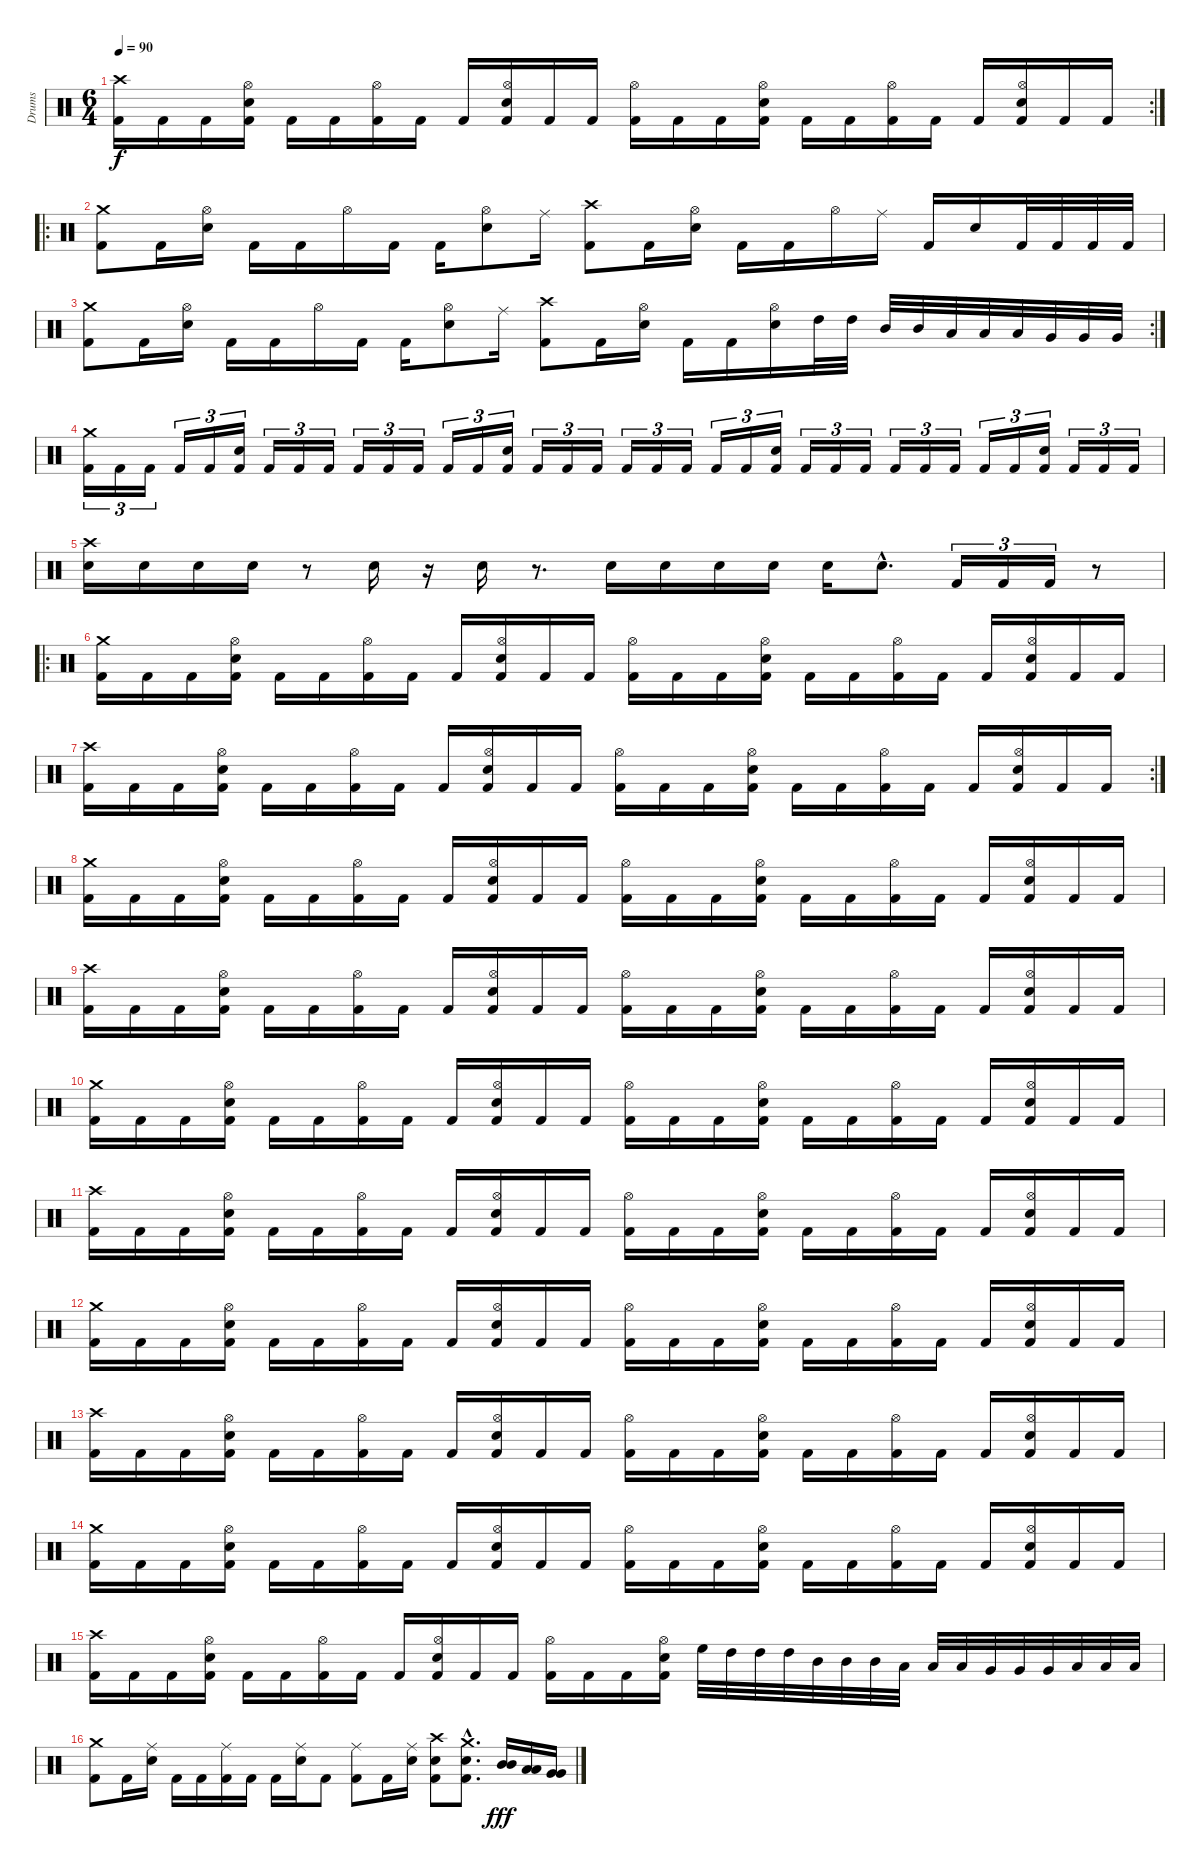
\track ("Drums" "Drums") {instrument percussion}
\staff {score}
\articulation defaults
\rc 2
\ts (6 4)
\tempo 90
\clef neutral
\ks c
("Crash high (hit)" "Kick (hit) 2").16{dy f} "Kick (hit) 2".16 "Kick (hit) 2".16 ("Hi-Hat (open)" "Electric Snare (hit)" "Kick (hit) 2").16 "Kick (hit) 2".16 "Kick (hit) 2".16 ("Hi-Hat (open)" "Kick (hit) 2").16 "Kick (hit) 2".16 "Kick (hit) 2".16 ("Hi-Hat (open)" "Electric Snare (hit)" "Kick (hit) 2").16 "Kick (hit) 2".16 "Kick (hit) 2".16 ("Hi-Hat (open)" "Kick (hit) 2").16 "Kick (hit) 2".16 "Kick (hit) 2".16 ("Hi-Hat (open)" "Electric Snare (hit)" "Kick (hit) 2").16 "Kick (hit) 2".16 "Kick (hit) 2".16 ("Hi-Hat (open)" "Kick (hit) 2").16 "Kick (hit) 2".16 "Kick (hit) 2".16 ("Hi-Hat (open)" "Electric Snare (hit)" "Kick (hit) 2").16 "Kick (hit) 2".16 "Kick (hit) 2".16 |
\ro
("Crash medium (hit)" "Kick (hit) 2").8 "Kick (hit) 2".16 ("Hi-Hat (open)" "Electric Snare (hit)").16 "Kick (hit) 2".16 "Kick (hit) 2".16 "Hi-Hat (open)".16 "Kick (hit) 2".16 "Kick (hit) 2".16 ("Hi-Hat (open)" "Electric Snare (hit)").8 "Ride (middle)".16 ("Crash high (hit)" "Kick (hit) 2").8 "Kick (hit) 2".16 ("Hi-Hat (open)" "Electric Snare (hit)").16 "Kick (hit) 2".16 "Kick (hit) 2".16 "Hi-Hat (open)".16 "Ride (middle)".16 "Kick (hit) 2".16 "Electric Snare (hit)".16 "Kick (hit) 2".32 "Kick (hit) 2".32 "Kick (hit) 2".32 "Kick (hit) 2".32 |
\rc 2
("Crash medium (hit)" "Kick (hit) 2").8 "Kick (hit) 2".16 ("Hi-Hat (open)" "Electric Snare (hit)").16 "Kick (hit) 2".16 "Kick (hit) 2".16 "Hi-Hat (open)".16 "Kick (hit) 2".16 "Kick (hit) 2".16 ("Hi-Hat (open)" "Electric Snare (hit)").8 "Ride (middle)".16 ("Crash high (hit)" "Kick (hit) 2").8 "Kick (hit) 2".16 ("Hi-Hat (open)" "Electric Snare (hit)").16 "Kick (hit) 2".16 "Kick (hit) 2".16 ("Hi-Hat (open)" "Electric Snare (hit)").16 "High Tom (hit)".32 "High Tom (hit)".32 "Mid Tom (hit)".32 "Mid Tom (hit)".32 "Low Tom (hit)".32 "Low Tom (hit)".32 "Low Tom (hit)".32 "Very Low Tom (hit)".32 "Very Low Tom (hit)".32 "Very Low Tom (hit)".32 |
("Crash medium (hit)" "Kick (hit) 2").16{tu (3 2)} "Kick (hit) 2".16{tu (3 2)} "Kick (hit) 2".16{tu (3 2)} "Kick (hit) 2".16{tu (3 2)} "Kick (hit) 2".16{tu (3 2)} ("Electric Snare (hit)" "Kick (hit) 2").16{tu (3 2)} "Kick (hit) 2".16{tu (3 2)} "Kick (hit) 2".16{tu (3 2)} "Kick (hit) 2".16{tu (3 2)} "Kick (hit) 2".16{tu (3 2)} "Kick (hit) 2".16{tu (3 2)} "Kick (hit) 2".16{tu (3 2)} "Kick (hit) 2".16{tu (3 2)} "Kick (hit) 2".16{tu (3 2)} ("Electric Snare (hit)" "Kick (hit) 2").16{tu (3 2)} "Kick (hit) 2".16{tu (3 2)} "Kick (hit) 2".16{tu (3 2)} "Kick (hit) 2".16{tu (3 2)} "Kick (hit) 2".16{tu (3 2)} "Kick (hit) 2".16{tu (3 2)} "Kick (hit) 2".16{tu (3 2)} "Kick (hit) 2".16{tu (3 2)} "Kick (hit) 2".16{tu (3 2)} ("Electric Snare (hit)" "Kick (hit) 2").16{tu (3 2)} "Kick (hit) 2".16{tu (3 2)} "Kick (hit) 2".16{tu (3 2)} "Kick (hit) 2".16{tu (3 2)} "Kick (hit) 2".16{tu (3 2)} "Kick (hit) 2".16{tu (3 2)} "Kick (hit) 2".16{tu (3 2)} "Kick (hit) 2".16{tu (3 2)} "Kick (hit) 2".16{tu (3 2)} ("Electric Snare (hit)" "Kick (hit) 2").16{tu (3 2)} "Kick (hit) 2".16{tu (3 2)} "Kick (hit) 2".16{tu (3 2)} "Kick (hit) 2".16{tu (3 2)} |
("Crash high (hit)" "Electric Snare (hit)").16 "Electric Snare (hit)".16 "Electric Snare (hit)".16 "Electric Snare (hit)".16 r.8 "Electric Snare (hit)".16 r.16 "Electric Snare (hit)".16 r.8{d} "Electric Snare (hit)".16 "Electric Snare (hit)".16 "Electric Snare (hit)".16 "Electric Snare (hit)".16 "Electric Snare (hit)".16 "Electric Snare (hit)"{hac}.8{d} "Kick (hit) 2".16{tu (3 2)} "Kick (hit) 2".16{tu (3 2)} "Kick (hit) 2".16{tu (3 2)} r.8 |
\ro
("Crash medium (hit)" "Kick (hit) 2").16 "Kick (hit) 2".16 "Kick (hit) 2".16 ("Hi-Hat (open)" "Electric Snare (hit)" "Kick (hit) 2").16 "Kick (hit) 2".16 "Kick (hit) 2".16 ("Hi-Hat (open)" "Kick (hit) 2").16 "Kick (hit) 2".16 "Kick (hit) 2".16 ("Hi-Hat (open)" "Electric Snare (hit)" "Kick (hit) 2").16 "Kick (hit) 2".16 "Kick (hit) 2".16 ("Hi-Hat (open)" "Kick (hit) 2").16 "Kick (hit) 2".16 "Kick (hit) 2".16 ("Hi-Hat (open)" "Electric Snare (hit)" "Kick (hit) 2").16 "Kick (hit) 2".16 "Kick (hit) 2".16 ("Hi-Hat (open)" "Kick (hit) 2").16 "Kick (hit) 2".16 "Kick (hit) 2".16 ("Hi-Hat (open)" "Electric Snare (hit)" "Kick (hit) 2").16 "Kick (hit) 2".16 "Kick (hit) 2".16 |
\rc 2
("Crash high (hit)" "Kick (hit) 2").16 "Kick (hit) 2".16 "Kick (hit) 2".16 ("Hi-Hat (open)" "Electric Snare (hit)" "Kick (hit) 2").16 "Kick (hit) 2".16 "Kick (hit) 2".16 ("Hi-Hat (open)" "Kick (hit) 2").16 "Kick (hit) 2".16 "Kick (hit) 2".16 ("Hi-Hat (open)" "Electric Snare (hit)" "Kick (hit) 2").16 "Kick (hit) 2".16 "Kick (hit) 2".16 ("Hi-Hat (open)" "Kick (hit) 2").16 "Kick (hit) 2".16 "Kick (hit) 2".16 ("Hi-Hat (open)" "Electric Snare (hit)" "Kick (hit) 2").16 "Kick (hit) 2".16 "Kick (hit) 2".16 ("Hi-Hat (open)" "Kick (hit) 2").16 "Kick (hit) 2".16 "Kick (hit) 2".16 ("Hi-Hat (open)" "Electric Snare (hit)" "Kick (hit) 2").16 "Kick (hit) 2".16 "Kick (hit) 2".16 |
("Crash medium (hit)" "Kick (hit) 2").16 "Kick (hit) 2".16 "Kick (hit) 2".16 ("Hi-Hat (open)" "Electric Snare (hit)" "Kick (hit) 2").16 "Kick (hit) 2".16 "Kick (hit) 2".16 ("Hi-Hat (open)" "Kick (hit) 2").16 "Kick (hit) 2".16 "Kick (hit) 2".16 ("Hi-Hat (open)" "Electric Snare (hit)" "Kick (hit) 2").16 "Kick (hit) 2".16 "Kick (hit) 2".16 ("Hi-Hat (open)" "Kick (hit) 2").16 "Kick (hit) 2".16 "Kick (hit) 2".16 ("Hi-Hat (open)" "Electric Snare (hit)" "Kick (hit) 2").16 "Kick (hit) 2".16 "Kick (hit) 2".16 ("Hi-Hat (open)" "Kick (hit) 2").16 "Kick (hit) 2".16 "Kick (hit) 2".16 ("Hi-Hat (open)" "Electric Snare (hit)" "Kick (hit) 2").16 "Kick (hit) 2".16 "Kick (hit) 2".16 |
("Crash high (hit)" "Kick (hit) 2").16 "Kick (hit) 2".16 "Kick (hit) 2".16 ("Hi-Hat (open)" "Electric Snare (hit)" "Kick (hit) 2").16 "Kick (hit) 2".16 "Kick (hit) 2".16 ("Hi-Hat (open)" "Kick (hit) 2").16 "Kick (hit) 2".16 "Kick (hit) 2".16 ("Hi-Hat (open)" "Electric Snare (hit)" "Kick (hit) 2").16 "Kick (hit) 2".16 "Kick (hit) 2".16 ("Hi-Hat (open)" "Kick (hit) 2").16 "Kick (hit) 2".16 "Kick (hit) 2".16 ("Hi-Hat (open)" "Electric Snare (hit)" "Kick (hit) 2").16 "Kick (hit) 2".16 "Kick (hit) 2".16 ("Hi-Hat (open)" "Kick (hit) 2").16 "Kick (hit) 2".16 "Kick (hit) 2".16 ("Hi-Hat (open)" "Electric Snare (hit)" "Kick (hit) 2").16 "Kick (hit) 2".16 "Kick (hit) 2".16 |
("Crash medium (hit)" "Kick (hit) 2").16 "Kick (hit) 2".16 "Kick (hit) 2".16 ("Hi-Hat (open)" "Electric Snare (hit)" "Kick (hit) 2").16 "Kick (hit) 2".16 "Kick (hit) 2".16 ("Hi-Hat (open)" "Kick (hit) 2").16 "Kick (hit) 2".16 "Kick (hit) 2".16 ("Hi-Hat (open)" "Electric Snare (hit)" "Kick (hit) 2").16 "Kick (hit) 2".16 "Kick (hit) 2".16 ("Hi-Hat (open)" "Kick (hit) 2").16 "Kick (hit) 2".16 "Kick (hit) 2".16 ("Hi-Hat (open)" "Electric Snare (hit)" "Kick (hit) 2").16 "Kick (hit) 2".16 "Kick (hit) 2".16 ("Hi-Hat (open)" "Kick (hit) 2").16 "Kick (hit) 2".16 "Kick (hit) 2".16 ("Hi-Hat (open)" "Electric Snare (hit)" "Kick (hit) 2").16 "Kick (hit) 2".16 "Kick (hit) 2".16 |
("Crash high (hit)" "Kick (hit) 2").16 "Kick (hit) 2".16 "Kick (hit) 2".16 ("Hi-Hat (open)" "Electric Snare (hit)" "Kick (hit) 2").16 "Kick (hit) 2".16 "Kick (hit) 2".16 ("Hi-Hat (open)" "Kick (hit) 2").16 "Kick (hit) 2".16 "Kick (hit) 2".16 ("Hi-Hat (open)" "Electric Snare (hit)" "Kick (hit) 2").16 "Kick (hit) 2".16 "Kick (hit) 2".16 ("Hi-Hat (open)" "Kick (hit) 2").16 "Kick (hit) 2".16 "Kick (hit) 2".16 ("Hi-Hat (open)" "Electric Snare (hit)" "Kick (hit) 2").16 "Kick (hit) 2".16 "Kick (hit) 2".16 ("Hi-Hat (open)" "Kick (hit) 2").16 "Kick (hit) 2".16 "Kick (hit) 2".16 ("Hi-Hat (open)" "Electric Snare (hit)" "Kick (hit) 2").16 "Kick (hit) 2".16 "Kick (hit) 2".16 |
("Crash medium (hit)" "Kick (hit) 2").16 "Kick (hit) 2".16 "Kick (hit) 2".16 ("Hi-Hat (open)" "Electric Snare (hit)" "Kick (hit) 2").16 "Kick (hit) 2".16 "Kick (hit) 2".16 ("Hi-Hat (open)" "Kick (hit) 2").16 "Kick (hit) 2".16 "Kick (hit) 2".16 ("Hi-Hat (open)" "Electric Snare (hit)" "Kick (hit) 2").16 "Kick (hit) 2".16 "Kick (hit) 2".16 ("Hi-Hat (open)" "Kick (hit) 2").16 "Kick (hit) 2".16 "Kick (hit) 2".16 ("Hi-Hat (open)" "Electric Snare (hit)" "Kick (hit) 2").16 "Kick (hit) 2".16 "Kick (hit) 2".16 ("Hi-Hat (open)" "Kick (hit) 2").16 "Kick (hit) 2".16 "Kick (hit) 2".16 ("Hi-Hat (open)" "Electric Snare (hit)" "Kick (hit) 2").16 "Kick (hit) 2".16 "Kick (hit) 2".16 |
("Crash high (hit)" "Kick (hit) 2").16 "Kick (hit) 2".16 "Kick (hit) 2".16 ("Hi-Hat (open)" "Electric Snare (hit)" "Kick (hit) 2").16 "Kick (hit) 2".16 "Kick (hit) 2".16 ("Hi-Hat (open)" "Kick (hit) 2").16 "Kick (hit) 2".16 "Kick (hit) 2".16 ("Hi-Hat (open)" "Electric Snare (hit)" "Kick (hit) 2").16 "Kick (hit) 2".16 "Kick (hit) 2".16 ("Hi-Hat (open)" "Kick (hit) 2").16 "Kick (hit) 2".16 "Kick (hit) 2".16 ("Hi-Hat (open)" "Electric Snare (hit)" "Kick (hit) 2").16 "Kick (hit) 2".16 "Kick (hit) 2".16 ("Hi-Hat (open)" "Kick (hit) 2").16 "Kick (hit) 2".16 "Kick (hit) 2".16 ("Hi-Hat (open)" "Electric Snare (hit)" "Kick (hit) 2").16 "Kick (hit) 2".16 "Kick (hit) 2".16 |
("Crash medium (hit)" "Kick (hit) 2").16 "Kick (hit) 2".16 "Kick (hit) 2".16 ("Hi-Hat (open)" "Electric Snare (hit)" "Kick (hit) 2").16 "Kick (hit) 2".16 "Kick (hit) 2".16 ("Hi-Hat (open)" "Kick (hit) 2").16 "Kick (hit) 2".16 "Kick (hit) 2".16 ("Hi-Hat (open)" "Electric Snare (hit)" "Kick (hit) 2").16 "Kick (hit) 2".16 "Kick (hit) 2".16 ("Hi-Hat (open)" "Kick (hit) 2").16 "Kick (hit) 2".16 "Kick (hit) 2".16 ("Hi-Hat (open)" "Electric Snare (hit)" "Kick (hit) 2").16 "Kick (hit) 2".16 "Kick (hit) 2".16 ("Hi-Hat (open)" "Kick (hit) 2").16 "Kick (hit) 2".16 "Kick (hit) 2".16 ("Hi-Hat (open)" "Electric Snare (hit)" "Kick (hit) 2").16 "Kick (hit) 2".16 "Kick (hit) 2".16 |
("Crash high (hit)" "Kick (hit) 2").16 "Kick (hit) 2".16 "Kick (hit) 2".16 ("Hi-Hat (open)" "Electric Snare (hit)" "Kick (hit) 2").16 "Kick (hit) 2".16 "Kick (hit) 2".16 ("Hi-Hat (open)" "Kick (hit) 2").16 "Kick (hit) 2".16 "Kick (hit) 2".16 ("Hi-Hat (open)" "Electric Snare (hit)" "Kick (hit) 2").16 "Kick (hit) 2".16 "Kick (hit) 2".16 ("Hi-Hat (open)" "Kick (hit) 2").16 "Kick (hit) 2".16 "Kick (hit) 2".16 ("Hi-Hat (open)" "Electric Snare (hit)" "Kick (hit) 2").16 "High Floor Tom (hit)".32 "High Tom (hit)".32 "High Tom (hit)".32 "High Tom (hit)".32 "Mid Tom (hit)".32 "Mid Tom (hit)".32 "Mid Tom (hit)".32 "Low Tom (hit)".32 "Low Tom (hit)".32 "Low Tom (hit)".32 "Very Low Tom (hit)".32 "Very Low Tom (hit)".32 "Very Low Tom (hit)".32 "Low Floor Tom (hit)".32 "Low Floor Tom (hit)".32 "Low Floor Tom (hit)".32 |
("Crash medium (hit)" "Kick (hit) 2").8 "Kick (hit) 2".16 ("Ride (middle)" "Electric Snare (hit)").16 "Kick (hit) 2".16 "Kick (hit) 2".16 ("Ride (middle)" "Kick (hit) 2").16 "Kick (hit) 2".16 "Kick (hit) 2".16 ("Ride (middle)" "Electric Snare (hit)").16 "Kick (hit) 2".8 ("Ride (middle)" "Kick (hit) 2").8 "Kick (hit) 2".16 ("Ride (middle)" "Electric Snare (hit)").16 ("Crash high (hit)" "Electric Snare (hit)" "Kick (hit) 2").8 ("Crash medium (hit)"{hac} "Electric Snare (hit)"{hac} "Kick (hit) 2"{hac}).8{d} ("Mid Tom (hit)" "Mid Tom (hit)").16{dy fff} ("Low Tom (hit)" "Low Tom (hit)").16 ("Very Low Tom (hit)" "Very Low Tom (hit)").16
